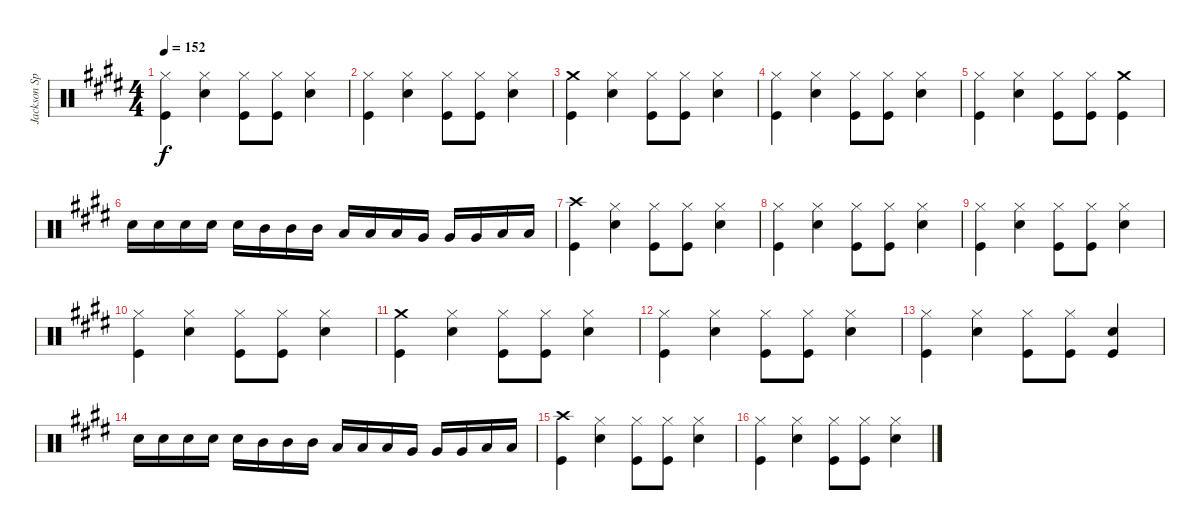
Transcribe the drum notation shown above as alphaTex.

\track ("Jackson Spiers Drums" "Jackson Sp") {instrument percussion}
\staff {score}
\articulation defaults
\ts (4 4)
\tempo 152
\clef neutral
\ks c#minor
("Hi-Hat (closed)" "Kick (hit)").4{dy f} ("Hi-Hat (closed)" "Snare (hit) 2").4 ("Hi-Hat (closed)" "Kick (hit)").8 ("Hi-Hat (closed)" "Kick (hit)").8 ("Hi-Hat (closed)" "Snare (hit) 2").4 |
("Hi-Hat (closed)" "Kick (hit)").4 ("Hi-Hat (closed)" "Snare (hit) 2").4 ("Hi-Hat (closed)" "Kick (hit)").8 ("Hi-Hat (closed)" "Kick (hit)").8 ("Hi-Hat (closed)" "Snare (hit) 2").4 |
("Crash medium (hit)" "Kick (hit)").4 ("Hi-Hat (closed)" "Snare (hit) 2").4 ("Hi-Hat (closed)" "Kick (hit)").8 ("Hi-Hat (closed)" "Kick (hit)").8 ("Hi-Hat (closed)" "Snare (hit) 2").4 |
("Hi-Hat (closed)" "Kick (hit)").4 ("Hi-Hat (closed)" "Snare (hit) 2").4 ("Hi-Hat (closed)" "Kick (hit)").8 ("Hi-Hat (closed)" "Kick (hit)").8 ("Hi-Hat (closed)" "Snare (hit) 2").4 |
("Hi-Hat (closed)" "Kick (hit)").4 ("Hi-Hat (closed)" "Snare (hit) 2").4 ("Hi-Hat (closed)" "Kick (hit)").8 ("Hi-Hat (closed)" "Kick (hit)").8 ("Crash medium (hit)" "Kick (hit)").4 |
"Snare (hit) 2".16 "Snare (hit) 2".16 "Snare (hit) 2".16 "Snare (hit) 2".16 "Snare (hit) 2".16 "Mid Tom (hit)".16 "Mid Tom (hit)".16 "Mid Tom (hit)".16 "Low Tom (hit)".16 "Low Tom (hit)".16 "Low Tom (hit)".16 "Very Low Tom (hit)".16 "Very Low Tom (hit)".16 "Very Low Tom (hit)".16 "Low Floor Tom (hit)".16 "Low Floor Tom (hit)".16 |
("Crash high (hit)" "Kick (hit)").4 ("Hi-Hat (closed)" "Snare (hit) 2").4 ("Hi-Hat (closed)" "Kick (hit)").8 ("Hi-Hat (closed)" "Kick (hit)").8 ("Hi-Hat (closed)" "Snare (hit) 2").4 |
("Hi-Hat (closed)" "Kick (hit)").4 ("Hi-Hat (closed)" "Snare (hit) 2").4 ("Hi-Hat (closed)" "Kick (hit)").8 ("Hi-Hat (closed)" "Kick (hit)").8 ("Hi-Hat (closed)" "Snare (hit) 2").4 |
("Hi-Hat (closed)" "Kick (hit)").4 ("Hi-Hat (closed)" "Snare (hit) 2").4 ("Hi-Hat (closed)" "Kick (hit)").8 ("Hi-Hat (closed)" "Kick (hit)").8 ("Hi-Hat (closed)" "Snare (hit) 2").4 |
("Hi-Hat (closed)" "Kick (hit)").4 ("Hi-Hat (closed)" "Snare (hit) 2").4 ("Hi-Hat (closed)" "Kick (hit)").8 ("Hi-Hat (closed)" "Kick (hit)").8 ("Hi-Hat (closed)" "Snare (hit) 2").4 |
("Crash medium (hit)" "Kick (hit)").4 ("Hi-Hat (closed)" "Snare (hit) 2").4 ("Hi-Hat (closed)" "Kick (hit)").8 ("Hi-Hat (closed)" "Kick (hit)").8 ("Hi-Hat (closed)" "Snare (hit) 2").4 |
("Hi-Hat (closed)" "Kick (hit)").4 ("Hi-Hat (closed)" "Snare (hit) 2").4 ("Hi-Hat (closed)" "Kick (hit)").8 ("Hi-Hat (closed)" "Kick (hit)").8 ("Hi-Hat (closed)" "Snare (hit) 2").4 |
("Hi-Hat (closed)" "Kick (hit)").4 ("Hi-Hat (closed)" "Snare (hit) 2").4 ("Hi-Hat (closed)" "Kick (hit)").8 ("Hi-Hat (closed)" "Kick (hit)").8 ("Snare (hit) 2" "Kick (hit)").4 |
"Snare (hit) 2".16 "Snare (hit) 2".16 "Snare (hit) 2".16 "Snare (hit) 2".16 "Snare (hit) 2".16 "Mid Tom (hit)".16 "Mid Tom (hit)".16 "Mid Tom (hit)".16 "Low Tom (hit)".16 "Low Tom (hit)".16 "Low Tom (hit)".16 "Very Low Tom (hit)".16 "Very Low Tom (hit)".16 "Very Low Tom (hit)".16 "Low Floor Tom (hit)".16 "Low Floor Tom (hit)".16 |
("Crash high (hit)" "Kick (hit)").4 ("Hi-Hat (closed)" "Snare (hit) 2").4 ("Hi-Hat (closed)" "Kick (hit)").8 ("Hi-Hat (closed)" "Kick (hit)").8 ("Hi-Hat (closed)" "Snare (hit) 2").4 |
("Hi-Hat (closed)" "Kick (hit)").4 ("Hi-Hat (closed)" "Snare (hit) 2").4 ("Hi-Hat (closed)" "Kick (hit)").8 ("Hi-Hat (closed)" "Kick (hit)").8 ("Hi-Hat (closed)" "Snare (hit) 2").4
